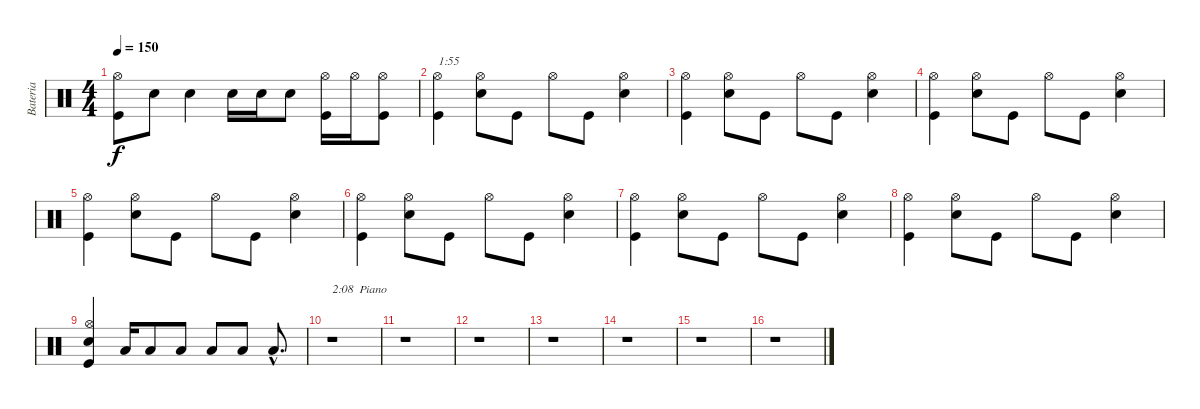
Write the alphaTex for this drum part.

\track ("Bateria" "Bateria") {instrument percussion}
\staff {score}
\articulation defaults
\ts (4 4)
\tempo 150
\clef neutral
\ks c
("Kick (hit)" "Hi-Hat (open)").8{dy f} "Snare (hit) 2".8 "Snare (hit) 2".4 "Snare (hit) 2".16 "Snare (hit) 2".16 "Snare (hit) 2".8 ("Kick (hit)" "Hi-Hat (open)").16 "Hi-Hat (open)".16 ("Kick (hit)" "Hi-Hat (open)").8 |
("Kick (hit)" "Hi-Hat (open)").4{txt "1:55"} ("Snare (hit) 2" "Hi-Hat (open)").8 "Kick (hit)".8 "Hi-Hat (open)".8 "Kick (hit)".8 ("Snare (hit) 2" "Hi-Hat (open)").4 |
("Kick (hit)" "Hi-Hat (open)").4 ("Snare (hit) 2" "Hi-Hat (open)").8 "Kick (hit)".8 "Hi-Hat (open)".8 "Kick (hit)".8 ("Snare (hit) 2" "Hi-Hat (open)").4 |
("Kick (hit)" "Hi-Hat (open)").4 ("Snare (hit) 2" "Hi-Hat (open)").8 "Kick (hit)".8 "Hi-Hat (open)".8 "Kick (hit)".8 ("Snare (hit) 2" "Hi-Hat (open)").4 |
("Kick (hit)" "Hi-Hat (open)").4 ("Snare (hit) 2" "Hi-Hat (open)").8 "Kick (hit)".8 "Hi-Hat (open)".8 "Kick (hit)".8 ("Snare (hit) 2" "Hi-Hat (open)").4 |
("Kick (hit)" "Hi-Hat (open)").4 ("Snare (hit) 2" "Hi-Hat (open)").8 "Kick (hit)".8 "Hi-Hat (open)".8 "Kick (hit)".8 ("Snare (hit) 2" "Hi-Hat (open)").4 |
("Kick (hit)" "Hi-Hat (open)").4 ("Snare (hit) 2" "Hi-Hat (open)").8 "Kick (hit)".8 "Hi-Hat (open)".8 "Kick (hit)".8 ("Snare (hit) 2" "Hi-Hat (open)").4 |
("Kick (hit)" "Hi-Hat (open)").4 ("Snare (hit) 2" "Hi-Hat (open)").8 "Kick (hit)".8 "Hi-Hat (open)".8 "Kick (hit)".8 ("Snare (hit) 2" "Hi-Hat (open)").4 |
("Kick (hit)" "Snare (hit) 2" "Hi-Hat (open)").4 "Low Floor Tom (hit)".16 "Low Floor Tom (hit)".8 "Low Floor Tom (hit)".8 "Low Floor Tom (hit)".8 "Low Floor Tom (hit)".8 "Low Floor Tom (hit)"{hac}.8{d} |
r.1{txt "2:08  Piano"} |
r.1 |
r.1 |
r.1 |
r.1 |
r.1 |
r.1
